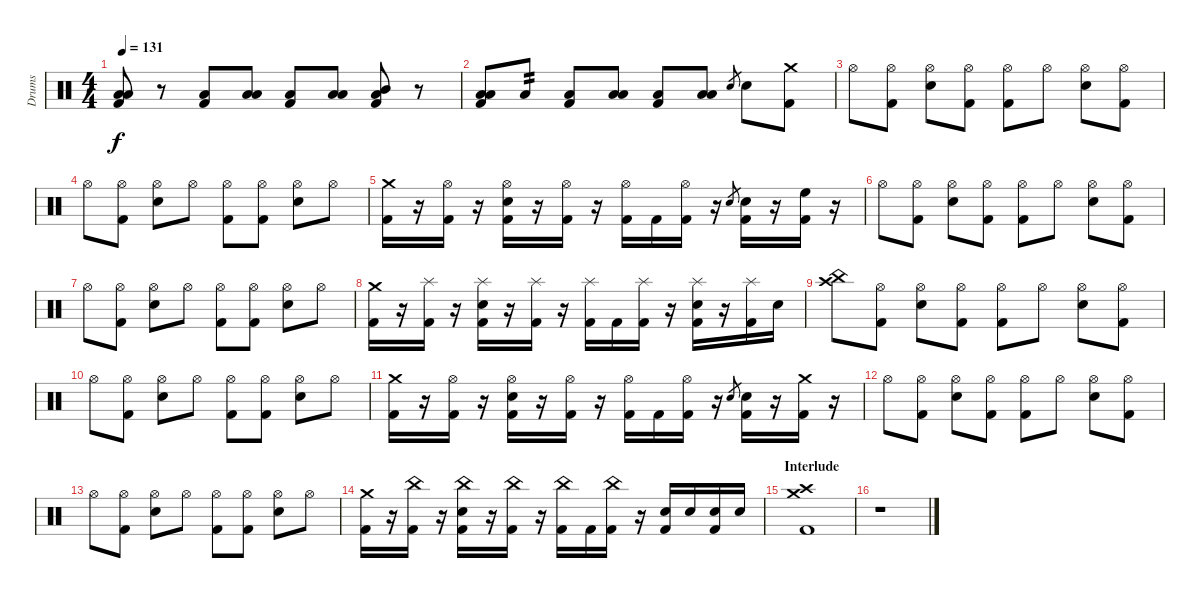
\track ("Drums" "Drums") {instrument percussion}
\staff {score}
\articulation defaults
\ts (4 4)
\tempo 131
\clef neutral
\ks c
("Low Tom (hit)" "Low Floor Tom (hit)" "Kick (hit) 2").8{dy f} r.8 ("Low Floor Tom (hit)" "Kick (hit) 2").8 ("Low Tom (hit)" "Low Floor Tom (hit)").8 ("Low Floor Tom (hit)" "Kick (hit) 2").8 ("Low Tom (hit)" "Low Floor Tom (hit)").8 ("Mid Tom (hit)" "Low Floor Tom (hit)" "Kick (hit) 2").8 r.8 |
("Low Tom (hit)" "Low Floor Tom (hit)" "Kick (hit) 2").8 "Low Floor Tom (hit)".8{tp 2} ("Low Floor Tom (hit)" "Kick (hit) 2").8 ("Low Tom (hit)" "Low Floor Tom (hit)").8 ("Low Floor Tom (hit)" "Kick (hit) 2").8 ("Low Tom (hit)" "Low Floor Tom (hit)").8 "Electric Snare (hit)".8{gr} "Electric Snare (hit)".8 ("Crash medium (hit)" "Kick (hit) 2").8 |
"Hi-Hat (open)".8 ("Hi-Hat (open)" "Kick (hit) 2").8 ("Hi-Hat (open)" "Electric Snare (hit)").8 ("Hi-Hat (open)" "Kick (hit) 2").8 ("Hi-Hat (open)" "Kick (hit) 2").8 "Hi-Hat (open)".8 ("Hi-Hat (open)" "Electric Snare (hit)").8 ("Hi-Hat (open)" "Kick (hit) 2").8 |
"Hi-Hat (open)".8 ("Hi-Hat (open)" "Kick (hit) 2").8 ("Hi-Hat (open)" "Electric Snare (hit)").8 "Hi-Hat (open)".8 ("Hi-Hat (open)" "Kick (hit) 2").8 ("Hi-Hat (open)" "Kick (hit) 2").8 ("Hi-Hat (open)" "Electric Snare (hit)").8 "Hi-Hat (open)".8 |
("Crash medium (hit)" "Kick (hit) 2").16 r.16 ("Hi-Hat (open)" "Kick (hit) 2").16 r.16 ("Hi-Hat (open)" "Electric Snare (hit)" "Kick (hit) 2").16 r.16 ("Hi-Hat (open)" "Kick (hit) 2").16 r.16 ("Hi-Hat (open)" "Kick (hit) 2").16 "Kick (hit) 2".16 ("Hi-Hat (open)" "Kick (hit) 2").16 r.16 "Electric Snare (hit)".8{gr} ("Electric Snare (hit)" "Kick (hit) 2").16 r.16 ("High Floor Tom (hit)" "Kick (hit) 2").16 r.16 |
"Hi-Hat (open)".8 ("Hi-Hat (open)" "Kick (hit) 2").8 ("Hi-Hat (open)" "Electric Snare (hit)").8 ("Hi-Hat (open)" "Kick (hit) 2").8 ("Hi-Hat (open)" "Kick (hit) 2").8 "Hi-Hat (open)".8 ("Hi-Hat (open)" "Electric Snare (hit)").8 ("Hi-Hat (open)" "Kick (hit) 2").8 |
"Hi-Hat (open)".8 ("Hi-Hat (open)" "Kick (hit) 2").8 ("Hi-Hat (open)" "Electric Snare (hit)").8 "Hi-Hat (open)".8 ("Hi-Hat (open)" "Kick (hit) 2").8 ("Hi-Hat (open)" "Kick (hit) 2").8 ("Hi-Hat (open)" "Electric Snare (hit)").8 "Hi-Hat (open)".8 |
("Crash medium (hit)" "Kick (hit) 2").16 r.16 ("Splash (hit)" "Kick (hit) 2").16 r.16 ("Splash (hit)" "Electric Snare (hit)" "Kick (hit) 2").16 r.16 ("Splash (hit)" "Kick (hit) 2").16 r.16 ("Splash (hit)" "Kick (hit) 2").16 "Kick (hit) 2".16 ("Splash (hit)" "Kick (hit) 2").16 r.16 ("Splash (hit)" "Electric Snare (hit)" "Kick (hit) 2").16 r.16 ("Splash (hit)" "Kick (hit) 2").16 "Electric Snare (hit)".16 |
("China (hit)" "Crash high (hit)").8 ("Hi-Hat (open)" "Kick (hit) 2").8 ("Hi-Hat (open)" "Electric Snare (hit)").8 ("Hi-Hat (open)" "Kick (hit) 2").8 ("Hi-Hat (open)" "Kick (hit) 2").8 "Hi-Hat (open)".8 ("Hi-Hat (open)" "Electric Snare (hit)").8 ("Hi-Hat (open)" "Kick (hit) 2").8 |
"Hi-Hat (open)".8 ("Hi-Hat (open)" "Kick (hit) 2").8 ("Hi-Hat (open)" "Electric Snare (hit)").8 "Hi-Hat (open)".8 ("Hi-Hat (open)" "Kick (hit) 2").8 ("Hi-Hat (open)" "Kick (hit) 2").8 ("Hi-Hat (open)" "Electric Snare (hit)").8 "Hi-Hat (open)".8 |
("Crash medium (hit)" "Kick (hit) 2").16 r.16 ("Hi-Hat (open)" "Kick (hit) 2").16 r.16 ("Hi-Hat (open)" "Electric Snare (hit)" "Kick (hit) 2").16 r.16 ("Hi-Hat (open)" "Kick (hit) 2").16 r.16 ("Hi-Hat (open)" "Kick (hit) 2").16 "Kick (hit) 2".16 ("Hi-Hat (open)" "Kick (hit) 2").16 r.16 "Electric Snare (hit)".8{gr} ("Electric Snare (hit)" "Kick (hit) 2").16 r.16 ("Crash medium (hit)" "Kick (hit) 2").16 r.16{volume 0} |
"Hi-Hat (open)".8{volume 14} ("Hi-Hat (open)" "Kick (hit) 2").8 ("Hi-Hat (open)" "Electric Snare (hit)").8 ("Hi-Hat (open)" "Kick (hit) 2").8 ("Hi-Hat (open)" "Kick (hit) 2").8 "Hi-Hat (open)".8 ("Hi-Hat (open)" "Electric Snare (hit)").8 ("Hi-Hat (open)" "Kick (hit) 2").8 |
"Hi-Hat (open)".8 ("Hi-Hat (open)" "Kick (hit) 2").8 ("Hi-Hat (open)" "Electric Snare (hit)").8 "Hi-Hat (open)".8 ("Hi-Hat (open)" "Kick (hit) 2").8 ("Hi-Hat (open)" "Kick (hit) 2").8 ("Hi-Hat (open)" "Electric Snare (hit)").8 "Hi-Hat (open)".8 |
("Crash medium (hit)" "Kick (hit) 2").16 r.16 ("China (hit)" "Kick (hit) 2").16 r.16 ("China (hit)" "Electric Snare (hit)" "Kick (hit) 2").16 r.16 ("China (hit)" "Kick (hit) 2").16 r.16 ("China (hit)" "Kick (hit) 2").16 "Kick (hit) 2".16 ("China (hit)" "Kick (hit) 2").16 r.16 ("Electric Snare (hit)" "Kick (hit) 2").16 "Electric Snare (hit)".16 ("Electric Snare (hit)" "Kick (hit) 2").16 "Electric Snare (hit)".16 |
\section ("" "Interlude")
("Crash medium (hit)" "Crash high (hit)" "Kick (hit) 2").1 |
r.1
